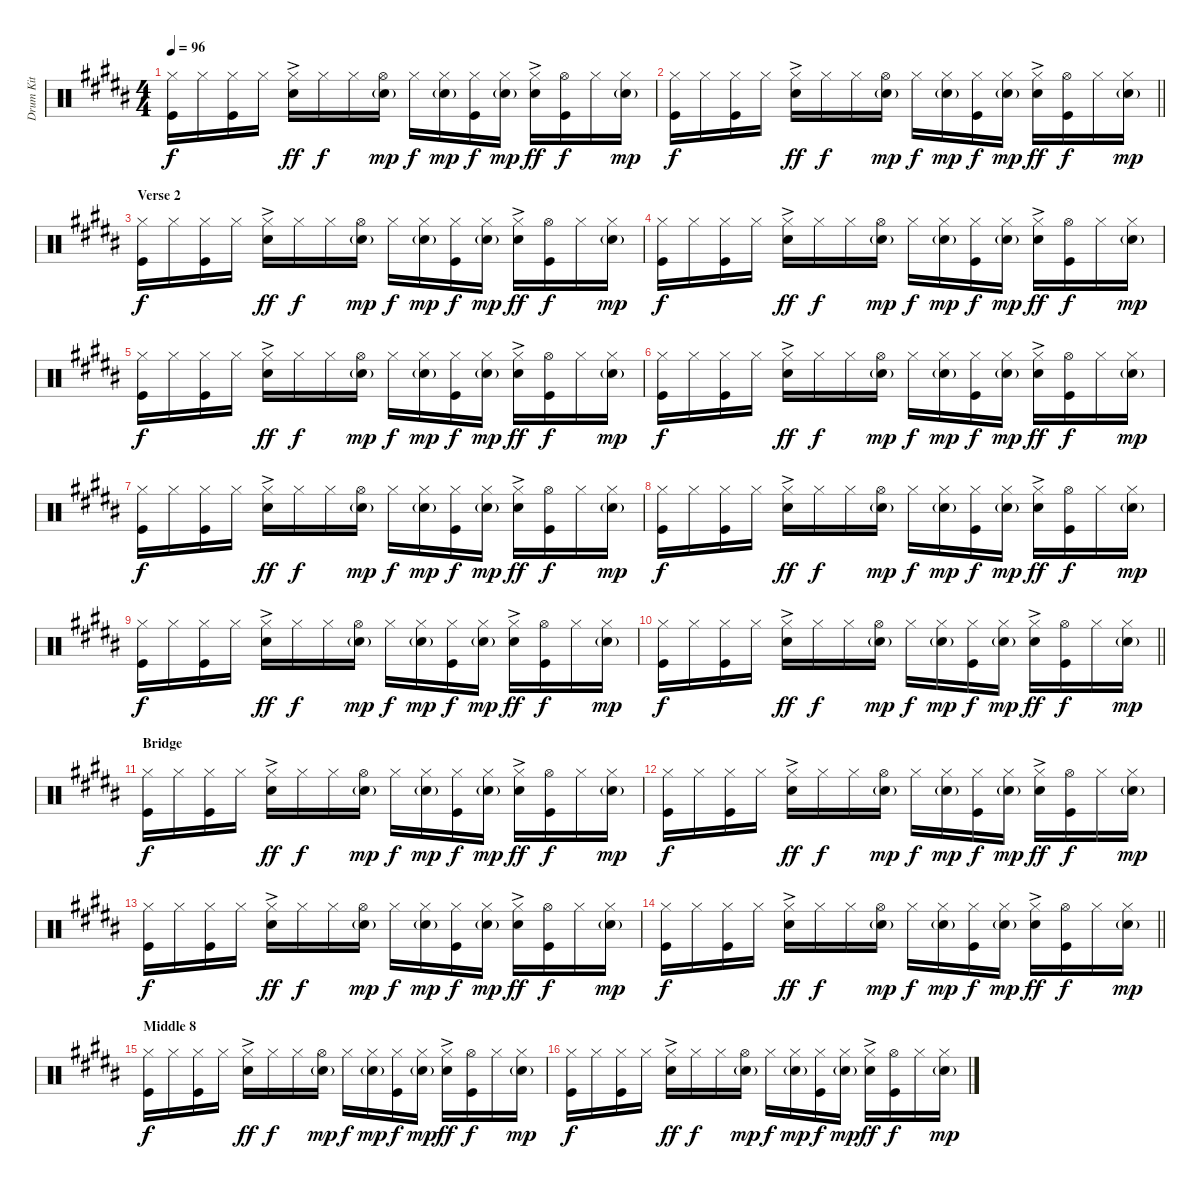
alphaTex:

\track ("Drum Kit" "Drum Kit") {instrument percussion}
\staff {score}
\articulation defaults
\ts (4 4)
\tempo 96
\clef neutral
\ks b
("Kick (hit)" "Hi-Hat (closed)").16{dy f} "Hi-Hat (closed)".16 ("Kick (hit)" "Hi-Hat (closed)").16 "Hi-Hat (closed)".16 ("Snare (hit) 2"{ac} "Hi-Hat (closed)").16{dy ff} "Hi-Hat (closed)".16{dy f} "Hi-Hat (closed)".16 ("Snare (hit) 2"{g} "Hi-Hat (open)").16{dy mp} "Hi-Hat (closed)".16{dy f} ("Snare (hit) 2"{g} "Hi-Hat (closed)").16{dy mp} ("Kick (hit)" "Hi-Hat (closed)").16{dy f} ("Snare (hit) 2"{g} "Hi-Hat (closed)").16{dy mp} ("Snare (hit) 2"{ac} "Hi-Hat (closed)").16{dy ff} ("Kick (hit)" "Hi-Hat (open)").16{dy f} "Hi-Hat (closed)".16 ("Snare (hit) 2"{g} "Hi-Hat (closed)").16{dy mp} |
\barLineRight lightlight
("Kick (hit)" "Hi-Hat (closed)").16{dy f} "Hi-Hat (closed)".16 ("Kick (hit)" "Hi-Hat (closed)").16 "Hi-Hat (closed)".16 ("Snare (hit) 2"{ac} "Hi-Hat (closed)").16{dy ff} "Hi-Hat (closed)".16{dy f} "Hi-Hat (closed)".16 ("Snare (hit) 2"{g} "Hi-Hat (open)").16{dy mp} "Hi-Hat (closed)".16{dy f} ("Snare (hit) 2"{g} "Hi-Hat (closed)").16{dy mp} ("Kick (hit)" "Hi-Hat (closed)").16{dy f} ("Snare (hit) 2"{g} "Hi-Hat (closed)").16{dy mp} ("Snare (hit) 2"{ac} "Hi-Hat (closed)").16{dy ff} ("Kick (hit)" "Hi-Hat (open)").16{dy f} "Hi-Hat (closed)".16 ("Snare (hit) 2"{g} "Hi-Hat (closed)").16{dy mp} |
\section ("" "Verse 2")
("Kick (hit)" "Hi-Hat (closed)").16{dy f} "Hi-Hat (closed)".16 ("Kick (hit)" "Hi-Hat (closed)").16 "Hi-Hat (closed)".16 ("Snare (hit) 2"{ac} "Hi-Hat (closed)").16{dy ff} "Hi-Hat (closed)".16{dy f} "Hi-Hat (closed)".16 ("Snare (hit) 2"{g} "Hi-Hat (open)").16{dy mp} "Hi-Hat (closed)".16{dy f} ("Snare (hit) 2"{g} "Hi-Hat (closed)").16{dy mp} ("Kick (hit)" "Hi-Hat (closed)").16{dy f} ("Snare (hit) 2"{g} "Hi-Hat (closed)").16{dy mp} ("Snare (hit) 2"{ac} "Hi-Hat (closed)").16{dy ff} ("Kick (hit)" "Hi-Hat (open)").16{dy f} "Hi-Hat (closed)".16 ("Snare (hit) 2"{g} "Hi-Hat (closed)").16{dy mp} |
("Kick (hit)" "Hi-Hat (closed)").16{dy f} "Hi-Hat (closed)".16 ("Kick (hit)" "Hi-Hat (closed)").16 "Hi-Hat (closed)".16 ("Snare (hit) 2"{ac} "Hi-Hat (closed)").16{dy ff} "Hi-Hat (closed)".16{dy f} "Hi-Hat (closed)".16 ("Snare (hit) 2"{g} "Hi-Hat (open)").16{dy mp} "Hi-Hat (closed)".16{dy f} ("Snare (hit) 2"{g} "Hi-Hat (closed)").16{dy mp} ("Kick (hit)" "Hi-Hat (closed)").16{dy f} ("Snare (hit) 2"{g} "Hi-Hat (closed)").16{dy mp} ("Snare (hit) 2"{ac} "Hi-Hat (closed)").16{dy ff} ("Kick (hit)" "Hi-Hat (open)").16{dy f} "Hi-Hat (closed)".16 ("Snare (hit) 2"{g} "Hi-Hat (closed)").16{dy mp} |
("Kick (hit)" "Hi-Hat (closed)").16{dy f} "Hi-Hat (closed)".16 ("Kick (hit)" "Hi-Hat (closed)").16 "Hi-Hat (closed)".16 ("Snare (hit) 2"{ac} "Hi-Hat (closed)").16{dy ff} "Hi-Hat (closed)".16{dy f} "Hi-Hat (closed)".16 ("Snare (hit) 2"{g} "Hi-Hat (open)").16{dy mp} "Hi-Hat (closed)".16{dy f} ("Snare (hit) 2"{g} "Hi-Hat (closed)").16{dy mp} ("Kick (hit)" "Hi-Hat (closed)").16{dy f} ("Snare (hit) 2"{g} "Hi-Hat (closed)").16{dy mp} ("Snare (hit) 2"{ac} "Hi-Hat (closed)").16{dy ff} ("Kick (hit)" "Hi-Hat (open)").16{dy f} "Hi-Hat (closed)".16 ("Snare (hit) 2"{g} "Hi-Hat (closed)").16{dy mp} |
("Kick (hit)" "Hi-Hat (closed)").16{dy f} "Hi-Hat (closed)".16 ("Kick (hit)" "Hi-Hat (closed)").16 "Hi-Hat (closed)".16 ("Snare (hit) 2"{ac} "Hi-Hat (closed)").16{dy ff} "Hi-Hat (closed)".16{dy f} "Hi-Hat (closed)".16 ("Snare (hit) 2"{g} "Hi-Hat (open)").16{dy mp} "Hi-Hat (closed)".16{dy f} ("Snare (hit) 2"{g} "Hi-Hat (closed)").16{dy mp} ("Kick (hit)" "Hi-Hat (closed)").16{dy f} ("Snare (hit) 2"{g} "Hi-Hat (closed)").16{dy mp} ("Snare (hit) 2"{ac} "Hi-Hat (closed)").16{dy ff} ("Kick (hit)" "Hi-Hat (open)").16{dy f} "Hi-Hat (closed)".16 ("Snare (hit) 2"{g} "Hi-Hat (closed)").16{dy mp} |
("Kick (hit)" "Hi-Hat (closed)").16{dy f} "Hi-Hat (closed)".16 ("Kick (hit)" "Hi-Hat (closed)").16 "Hi-Hat (closed)".16 ("Snare (hit) 2"{ac} "Hi-Hat (closed)").16{dy ff} "Hi-Hat (closed)".16{dy f} "Hi-Hat (closed)".16 ("Snare (hit) 2"{g} "Hi-Hat (open)").16{dy mp} "Hi-Hat (closed)".16{dy f} ("Snare (hit) 2"{g} "Hi-Hat (closed)").16{dy mp} ("Kick (hit)" "Hi-Hat (closed)").16{dy f} ("Snare (hit) 2"{g} "Hi-Hat (closed)").16{dy mp} ("Snare (hit) 2"{ac} "Hi-Hat (closed)").16{dy ff} ("Kick (hit)" "Hi-Hat (open)").16{dy f} "Hi-Hat (closed)".16 ("Snare (hit) 2"{g} "Hi-Hat (closed)").16{dy mp} |
("Kick (hit)" "Hi-Hat (closed)").16{dy f} "Hi-Hat (closed)".16 ("Kick (hit)" "Hi-Hat (closed)").16 "Hi-Hat (closed)".16 ("Snare (hit) 2"{ac} "Hi-Hat (closed)").16{dy ff} "Hi-Hat (closed)".16{dy f} "Hi-Hat (closed)".16 ("Snare (hit) 2"{g} "Hi-Hat (open)").16{dy mp} "Hi-Hat (closed)".16{dy f} ("Snare (hit) 2"{g} "Hi-Hat (closed)").16{dy mp} ("Kick (hit)" "Hi-Hat (closed)").16{dy f} ("Snare (hit) 2"{g} "Hi-Hat (closed)").16{dy mp} ("Snare (hit) 2"{ac} "Hi-Hat (closed)").16{dy ff} ("Kick (hit)" "Hi-Hat (open)").16{dy f} "Hi-Hat (closed)".16 ("Snare (hit) 2"{g} "Hi-Hat (closed)").16{dy mp} |
("Kick (hit)" "Hi-Hat (closed)").16{dy f} "Hi-Hat (closed)".16 ("Kick (hit)" "Hi-Hat (closed)").16 "Hi-Hat (closed)".16 ("Snare (hit) 2"{ac} "Hi-Hat (closed)").16{dy ff} "Hi-Hat (closed)".16{dy f} "Hi-Hat (closed)".16 ("Snare (hit) 2"{g} "Hi-Hat (open)").16{dy mp} "Hi-Hat (closed)".16{dy f} ("Snare (hit) 2"{g} "Hi-Hat (closed)").16{dy mp} ("Kick (hit)" "Hi-Hat (closed)").16{dy f} ("Snare (hit) 2"{g} "Hi-Hat (closed)").16{dy mp} ("Snare (hit) 2"{ac} "Hi-Hat (closed)").16{dy ff} ("Kick (hit)" "Hi-Hat (open)").16{dy f} "Hi-Hat (closed)".16 ("Snare (hit) 2"{g} "Hi-Hat (closed)").16{dy mp} |
\barLineRight lightlight
("Kick (hit)" "Hi-Hat (closed)").16{dy f} "Hi-Hat (closed)".16 ("Kick (hit)" "Hi-Hat (closed)").16 "Hi-Hat (closed)".16 ("Snare (hit) 2"{ac} "Hi-Hat (closed)").16{dy ff} "Hi-Hat (closed)".16{dy f} "Hi-Hat (closed)".16 ("Snare (hit) 2"{g} "Hi-Hat (open)").16{dy mp} "Hi-Hat (closed)".16{dy f} ("Snare (hit) 2"{g} "Hi-Hat (closed)").16{dy mp} ("Kick (hit)" "Hi-Hat (closed)").16{dy f} ("Snare (hit) 2"{g} "Hi-Hat (closed)").16{dy mp} ("Snare (hit) 2"{ac} "Hi-Hat (closed)").16{dy ff} ("Kick (hit)" "Hi-Hat (open)").16{dy f} "Hi-Hat (closed)".16 ("Snare (hit) 2"{g} "Hi-Hat (closed)").16{dy mp} |
\section ("" "Bridge")
("Kick (hit)" "Hi-Hat (closed)").16{dy f} "Hi-Hat (closed)".16 ("Kick (hit)" "Hi-Hat (closed)").16 "Hi-Hat (closed)".16 ("Snare (hit) 2"{ac} "Hi-Hat (closed)").16{dy ff} "Hi-Hat (closed)".16{dy f} "Hi-Hat (closed)".16 ("Snare (hit) 2"{g} "Hi-Hat (open)").16{dy mp} "Hi-Hat (closed)".16{dy f} ("Snare (hit) 2"{g} "Hi-Hat (closed)").16{dy mp} ("Kick (hit)" "Hi-Hat (closed)").16{dy f} ("Snare (hit) 2"{g} "Hi-Hat (closed)").16{dy mp} ("Snare (hit) 2"{ac} "Hi-Hat (closed)").16{dy ff} ("Kick (hit)" "Hi-Hat (open)").16{dy f} "Hi-Hat (closed)".16 ("Snare (hit) 2"{g} "Hi-Hat (closed)").16{dy mp} |
("Kick (hit)" "Hi-Hat (closed)").16{dy f} "Hi-Hat (closed)".16 ("Kick (hit)" "Hi-Hat (closed)").16 "Hi-Hat (closed)".16 ("Snare (hit) 2"{ac} "Hi-Hat (closed)").16{dy ff} "Hi-Hat (closed)".16{dy f} "Hi-Hat (closed)".16 ("Snare (hit) 2"{g} "Hi-Hat (open)").16{dy mp} "Hi-Hat (closed)".16{dy f} ("Snare (hit) 2"{g} "Hi-Hat (closed)").16{dy mp} ("Kick (hit)" "Hi-Hat (closed)").16{dy f} ("Snare (hit) 2"{g} "Hi-Hat (closed)").16{dy mp} ("Snare (hit) 2"{ac} "Hi-Hat (closed)").16{dy ff} ("Kick (hit)" "Hi-Hat (open)").16{dy f} "Hi-Hat (closed)".16 ("Snare (hit) 2"{g} "Hi-Hat (closed)").16{dy mp} |
("Kick (hit)" "Hi-Hat (closed)").16{dy f} "Hi-Hat (closed)".16 ("Kick (hit)" "Hi-Hat (closed)").16 "Hi-Hat (closed)".16 ("Snare (hit) 2"{ac} "Hi-Hat (closed)").16{dy ff} "Hi-Hat (closed)".16{dy f} "Hi-Hat (closed)".16 ("Snare (hit) 2"{g} "Hi-Hat (open)").16{dy mp} "Hi-Hat (closed)".16{dy f} ("Snare (hit) 2"{g} "Hi-Hat (closed)").16{dy mp} ("Kick (hit)" "Hi-Hat (closed)").16{dy f} ("Snare (hit) 2"{g} "Hi-Hat (closed)").16{dy mp} ("Snare (hit) 2"{ac} "Hi-Hat (closed)").16{dy ff} ("Kick (hit)" "Hi-Hat (open)").16{dy f} "Hi-Hat (closed)".16 ("Snare (hit) 2"{g} "Hi-Hat (closed)").16{dy mp} |
\barLineRight lightlight
("Kick (hit)" "Hi-Hat (closed)").16{dy f} "Hi-Hat (closed)".16 ("Kick (hit)" "Hi-Hat (closed)").16 "Hi-Hat (closed)".16 ("Snare (hit) 2"{ac} "Hi-Hat (closed)").16{dy ff} "Hi-Hat (closed)".16{dy f} "Hi-Hat (closed)".16 ("Snare (hit) 2"{g} "Hi-Hat (open)").16{dy mp} "Hi-Hat (closed)".16{dy f} ("Snare (hit) 2"{g} "Hi-Hat (closed)").16{dy mp} ("Kick (hit)" "Hi-Hat (closed)").16{dy f} ("Snare (hit) 2"{g} "Hi-Hat (closed)").16{dy mp} ("Snare (hit) 2"{ac} "Hi-Hat (closed)").16{dy ff} ("Kick (hit)" "Hi-Hat (open)").16{dy f} "Hi-Hat (closed)".16 ("Snare (hit) 2"{g} "Hi-Hat (closed)").16{dy mp} |
\section ("" "Middle 8")
("Kick (hit)" "Hi-Hat (closed)").16{dy f} "Hi-Hat (closed)".16 ("Kick (hit)" "Hi-Hat (closed)").16 "Hi-Hat (closed)".16 ("Snare (hit) 2"{ac} "Hi-Hat (closed)").16{dy ff} "Hi-Hat (closed)".16{dy f} "Hi-Hat (closed)".16 ("Snare (hit) 2"{g} "Hi-Hat (open)").16{dy mp} "Hi-Hat (closed)".16{dy f} ("Snare (hit) 2"{g} "Hi-Hat (closed)").16{dy mp} ("Kick (hit)" "Hi-Hat (closed)").16{dy f} ("Snare (hit) 2"{g} "Hi-Hat (closed)").16{dy mp} ("Snare (hit) 2"{ac} "Hi-Hat (closed)").16{dy ff} ("Kick (hit)" "Hi-Hat (open)").16{dy f} "Hi-Hat (closed)".16 ("Snare (hit) 2"{g} "Hi-Hat (closed)").16{dy mp} |
("Kick (hit)" "Hi-Hat (closed)").16{dy f} "Hi-Hat (closed)".16 ("Kick (hit)" "Hi-Hat (closed)").16 "Hi-Hat (closed)".16 ("Snare (hit) 2"{ac} "Hi-Hat (closed)").16{dy ff} "Hi-Hat (closed)".16{dy f} "Hi-Hat (closed)".16 ("Snare (hit) 2"{g} "Hi-Hat (open)").16{dy mp} "Hi-Hat (closed)".16{dy f} ("Snare (hit) 2"{g} "Hi-Hat (closed)").16{dy mp} ("Kick (hit)" "Hi-Hat (closed)").16{dy f} ("Snare (hit) 2"{g} "Hi-Hat (closed)").16{dy mp} ("Snare (hit) 2"{ac} "Hi-Hat (closed)").16{dy ff} ("Kick (hit)" "Hi-Hat (open)").16{dy f} "Hi-Hat (closed)".16 ("Snare (hit) 2"{g} "Hi-Hat (closed)").16{dy mp}
